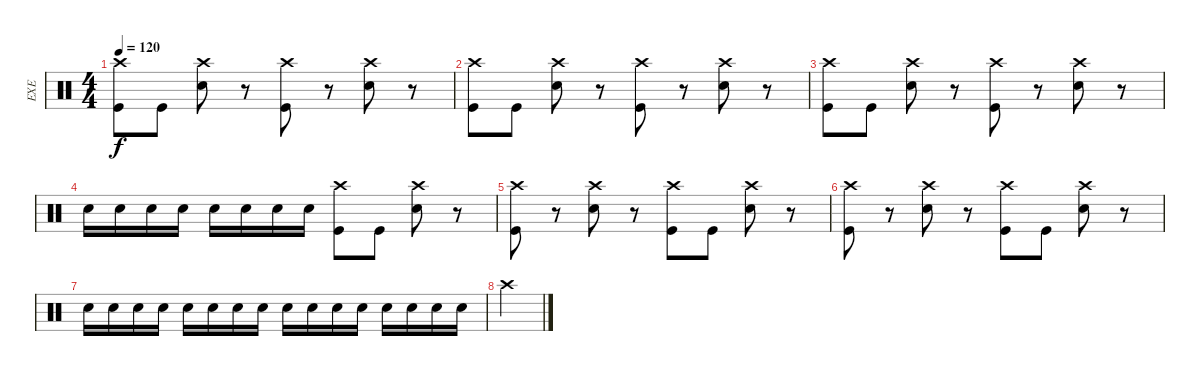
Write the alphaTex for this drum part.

\track ("EXE" "EXE") {instrument percussion}
\staff {score}
\articulation defaults
\ts (4 4)
\tempo 120
\clef neutral
\ks c
("Kick (hit)" "Crash high (hit)").8{dy f} "Kick (hit)".8 ("Snare (hit) 2" "Crash high (hit)").8 r.8 ("Kick (hit)" "Crash high (hit)").8 r.8 ("Snare (hit) 2" "Crash high (hit)").8 r.8 |
("Kick (hit)" "Crash high (hit)").8 "Kick (hit)".8 ("Snare (hit) 2" "Crash high (hit)").8 r.8 ("Kick (hit)" "Crash high (hit)").8 r.8 ("Snare (hit) 2" "Crash high (hit)").8 r.8 |
("Kick (hit)" "Crash high (hit)").8 "Kick (hit)".8 ("Snare (hit) 2" "Crash high (hit)").8 r.8 ("Kick (hit)" "Crash high (hit)").8 r.8 ("Snare (hit) 2" "Crash high (hit)").8 r.8 |
"Snare (hit) 2".16 "Snare (hit) 2".16 "Snare (hit) 2".16 "Snare (hit) 2".16 "Snare (hit) 2".16 "Snare (hit) 2".16 "Snare (hit) 2".16 "Snare (hit) 2".16 ("Kick (hit)" "Crash high (hit)").8 "Kick (hit)".8 ("Snare (hit) 2" "Crash high (hit)").8 r.8 |
("Kick (hit)" "Crash high (hit)").8 r.8 ("Snare (hit) 2" "Crash high (hit)").8 r.8 ("Kick (hit)" "Crash high (hit)").8 "Kick (hit)".8 ("Snare (hit) 2" "Crash high (hit)").8 r.8 |
("Kick (hit)" "Crash high (hit)").8 r.8 ("Snare (hit) 2" "Crash high (hit)").8 r.8 ("Kick (hit)" "Crash high (hit)").8 "Kick (hit)".8 ("Snare (hit) 2" "Crash high (hit)").8 r.8 |
"Snare (hit) 2".16 "Snare (hit) 2".16 "Snare (hit) 2".16 "Snare (hit) 2".16 "Snare (hit) 2".16 "Snare (hit) 2".16 "Snare (hit) 2".16 "Snare (hit) 2".16 "Snare (hit) 2".16 "Snare (hit) 2".16 "Snare (hit) 2".16 "Snare (hit) 2".16 "Snare (hit) 2".16 "Snare (hit) 2".16 "Snare (hit) 2".16 "Snare (hit) 2".16 |
"Crash high (hit)".4
